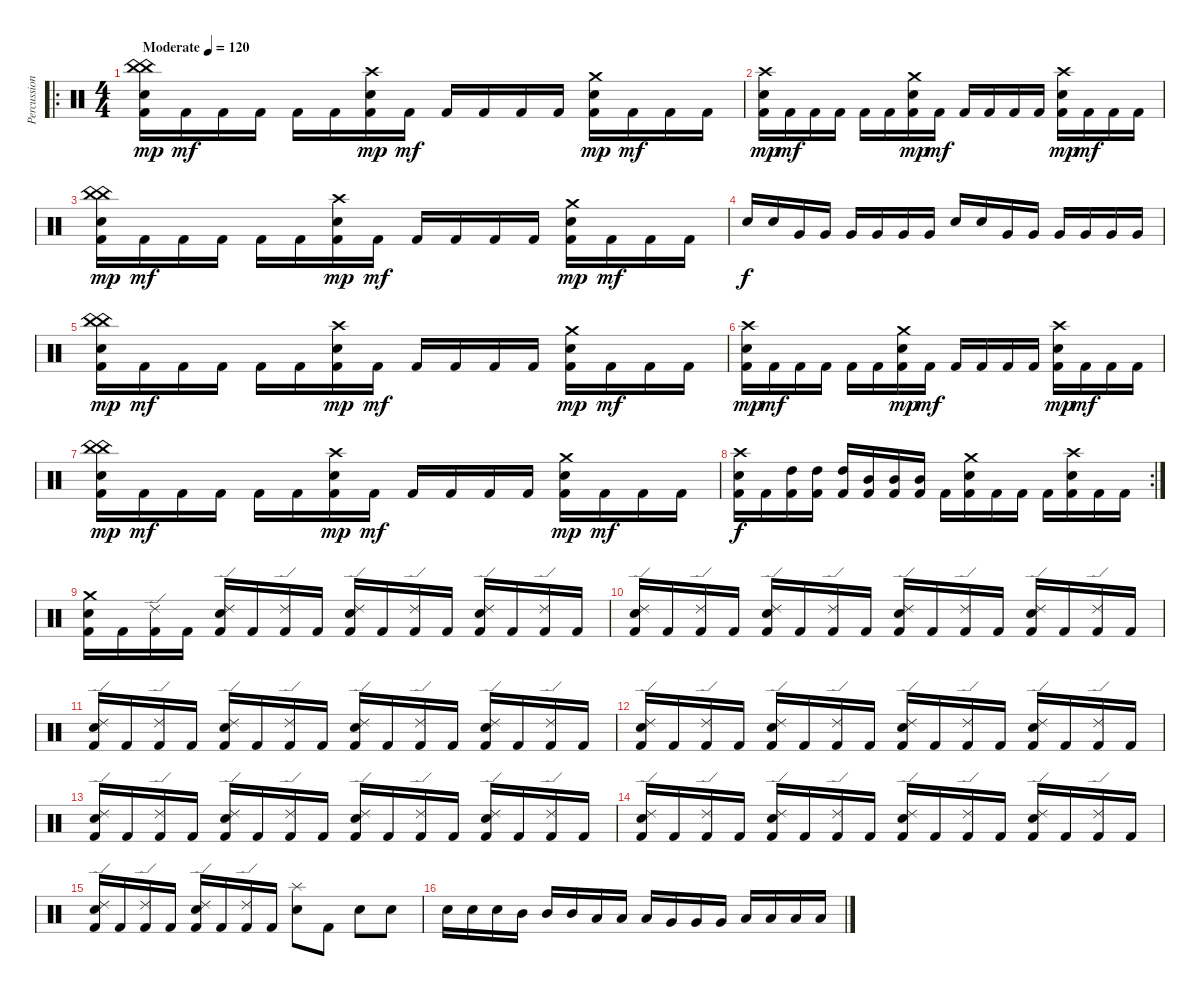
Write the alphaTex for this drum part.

\track ("Percussion" "Percussion") {instrument percussion}
\staff {score}
\articulation defaults
\ro
\ts (4 4)
\tempo (120 "Moderate")
\tempo 180
\tempo (120 "Moderate")
\clef neutral
\ks c
("China (hit)" "China (hit)" "Electric Snare (hit)" "Kick (hit) 2").16{dy mp} "Kick (hit) 2".16{dy mf} "Kick (hit) 2".16 "Kick (hit) 2".16 "Kick (hit) 2".16 "Kick (hit) 2".16 ("Crash high (hit)" "Electric Snare (hit)" "Kick (hit) 2").16{dy mp} "Kick (hit) 2".16{dy mf} "Kick (hit) 2".16 "Kick (hit) 2".16 "Kick (hit) 2".16 "Kick (hit) 2".16 ("Crash medium (hit)" "Electric Snare (hit)" "Kick (hit) 2").16{dy mp} "Kick (hit) 2".16{dy mf} "Kick (hit) 2".16 "Kick (hit) 2".16 |
("Crash high (hit)" "Electric Snare (hit)" "Kick (hit) 2").16{dy mp} "Kick (hit) 2".16{dy mf} "Kick (hit) 2".16 "Kick (hit) 2".16 "Kick (hit) 2".16 "Kick (hit) 2".16 ("Crash medium (hit)" "Electric Snare (hit)" "Kick (hit) 2").16{dy mp} "Kick (hit) 2".16{dy mf} "Kick (hit) 2".16 "Kick (hit) 2".16 "Kick (hit) 2".16 "Kick (hit) 2".16 ("Crash high (hit)" "Electric Snare (hit)" "Kick (hit) 2").16{dy mp} "Kick (hit) 2".16{dy mf} "Kick (hit) 2".16 "Kick (hit) 2".16 |
("China (hit)" "China (hit)" "Electric Snare (hit)" "Kick (hit) 2").16{dy mp} "Kick (hit) 2".16{dy mf} "Kick (hit) 2".16 "Kick (hit) 2".16 "Kick (hit) 2".16 "Kick (hit) 2".16 ("Crash high (hit)" "Electric Snare (hit)" "Kick (hit) 2").16{dy mp} "Kick (hit) 2".16{dy mf} "Kick (hit) 2".16 "Kick (hit) 2".16 "Kick (hit) 2".16 "Kick (hit) 2".16 ("Crash medium (hit)" "Electric Snare (hit)" "Kick (hit) 2").16{dy mp} "Kick (hit) 2".16{dy mf} "Kick (hit) 2".16 "Kick (hit) 2".16 |
"Electric Snare (hit)".16{dy f} "Electric Snare (hit)".16 "Very Low Tom (hit)".16 "Very Low Tom (hit)".16 "Very Low Tom (hit)".16 "Very Low Tom (hit)".16 "Very Low Tom (hit)".16 "Very Low Tom (hit)".16 "Electric Snare (hit)".16 "Electric Snare (hit)".16 "Very Low Tom (hit)".16 "Very Low Tom (hit)".16 "Very Low Tom (hit)".16 "Very Low Tom (hit)".16 "Very Low Tom (hit)".16 "Very Low Tom (hit)".16 |
("China (hit)" "China (hit)" "Electric Snare (hit)" "Kick (hit) 2").16{dy mp} "Kick (hit) 2".16{dy mf} "Kick (hit) 2".16 "Kick (hit) 2".16 "Kick (hit) 2".16 "Kick (hit) 2".16 ("Crash high (hit)" "Electric Snare (hit)" "Kick (hit) 2").16{dy mp} "Kick (hit) 2".16{dy mf} "Kick (hit) 2".16 "Kick (hit) 2".16 "Kick (hit) 2".16 "Kick (hit) 2".16 ("Crash medium (hit)" "Electric Snare (hit)" "Kick (hit) 2").16{dy mp} "Kick (hit) 2".16{dy mf} "Kick (hit) 2".16 "Kick (hit) 2".16 |
("Crash high (hit)" "Electric Snare (hit)" "Kick (hit) 2").16{dy mp} "Kick (hit) 2".16{dy mf} "Kick (hit) 2".16 "Kick (hit) 2".16 "Kick (hit) 2".16 "Kick (hit) 2".16 ("Crash medium (hit)" "Electric Snare (hit)" "Kick (hit) 2").16{dy mp} "Kick (hit) 2".16{dy mf} "Kick (hit) 2".16 "Kick (hit) 2".16 "Kick (hit) 2".16 "Kick (hit) 2".16 ("Crash high (hit)" "Electric Snare (hit)" "Kick (hit) 2").16{dy mp} "Kick (hit) 2".16{dy mf} "Kick (hit) 2".16 "Kick (hit) 2".16 |
("China (hit)" "China (hit)" "Electric Snare (hit)" "Kick (hit) 2").16{dy mp} "Kick (hit) 2".16{dy mf} "Kick (hit) 2".16 "Kick (hit) 2".16 "Kick (hit) 2".16 "Kick (hit) 2".16 ("Crash high (hit)" "Electric Snare (hit)" "Kick (hit) 2").16{dy mp} "Kick (hit) 2".16{dy mf} "Kick (hit) 2".16 "Kick (hit) 2".16 "Kick (hit) 2".16 "Kick (hit) 2".16 ("Crash medium (hit)" "Electric Snare (hit)" "Kick (hit) 2").16{dy mp} "Kick (hit) 2".16{dy mf} "Kick (hit) 2".16 "Kick (hit) 2".16 |
\rc 2
("Crash high (hit)" "Electric Snare (hit)" "Kick (hit) 2").16{dy f} "Kick (hit) 2".16 ("High Tom (hit)" "Kick (hit) 2").16 ("High Tom (hit)" "Kick (hit) 2").16 ("High Tom (hit)" "Kick (hit) 2").16 ("Mid Tom (hit)" "Kick (hit) 2").16 ("Mid Tom (hit)" "Kick (hit) 2").16 ("Mid Tom (hit)" "Kick (hit) 2").16 "Kick (hit) 2".16 ("Crash medium (hit)" "Electric Snare (hit)" "Kick (hit) 2").16 "Kick (hit) 2".16 "Kick (hit) 2".16 "Kick (hit) 2".16 ("Crash high (hit)" "Electric Snare (hit)" "Kick (hit) 2").16 "Kick (hit) 2".16 "Kick (hit) 2".16 |
("Crash medium (hit)" "Electric Snare (hit)" "Kick (hit) 2").16 "Kick (hit) 2".16 ("Ride (edge) 2" "Kick (hit) 2").16 "Kick (hit) 2".16 ("Ride (edge) 2" "Electric Snare (hit)" "Kick (hit) 2").16 "Kick (hit) 2".16 ("Ride (edge) 2" "Kick (hit) 2").16 "Kick (hit) 2".16 ("Ride (edge) 2" "Electric Snare (hit)" "Kick (hit) 2").16 "Kick (hit) 2".16 ("Ride (edge) 2" "Kick (hit) 2").16 "Kick (hit) 2".16 ("Ride (edge) 2" "Electric Snare (hit)" "Kick (hit) 2").16 "Kick (hit) 2".16 ("Ride (edge) 2" "Kick (hit) 2").16 "Kick (hit) 2".16 |
("Ride (edge) 2" "Electric Snare (hit)" "Kick (hit) 2").16 "Kick (hit) 2".16 ("Ride (edge) 2" "Kick (hit) 2").16 "Kick (hit) 2".16 ("Ride (edge) 2" "Electric Snare (hit)" "Kick (hit) 2").16 "Kick (hit) 2".16 ("Ride (edge) 2" "Kick (hit) 2").16 "Kick (hit) 2".16 ("Ride (edge) 2" "Electric Snare (hit)" "Kick (hit) 2").16 "Kick (hit) 2".16 ("Ride (edge) 2" "Kick (hit) 2").16 "Kick (hit) 2".16 ("Ride (edge) 2" "Electric Snare (hit)" "Kick (hit) 2").16 "Kick (hit) 2".16 ("Ride (edge) 2" "Kick (hit) 2").16 "Kick (hit) 2".16 |
("Ride (edge) 2" "Electric Snare (hit)" "Kick (hit) 2").16 "Kick (hit) 2".16 ("Ride (edge) 2" "Kick (hit) 2").16 "Kick (hit) 2".16 ("Ride (edge) 2" "Electric Snare (hit)" "Kick (hit) 2").16 "Kick (hit) 2".16 ("Ride (edge) 2" "Kick (hit) 2").16 "Kick (hit) 2".16 ("Ride (edge) 2" "Electric Snare (hit)" "Kick (hit) 2").16 "Kick (hit) 2".16 ("Ride (edge) 2" "Kick (hit) 2").16 "Kick (hit) 2".16 ("Ride (edge) 2" "Electric Snare (hit)" "Kick (hit) 2").16 "Kick (hit) 2".16 ("Ride (edge) 2" "Kick (hit) 2").16 "Kick (hit) 2".16 |
("Ride (edge) 2" "Electric Snare (hit)" "Kick (hit) 2").16 "Kick (hit) 2".16 ("Ride (edge) 2" "Kick (hit) 2").16 "Kick (hit) 2".16 ("Ride (edge) 2" "Electric Snare (hit)" "Kick (hit) 2").16 "Kick (hit) 2".16 ("Ride (edge) 2" "Kick (hit) 2").16 "Kick (hit) 2".16 ("Ride (edge) 2" "Electric Snare (hit)" "Kick (hit) 2").16 "Kick (hit) 2".16 ("Ride (edge) 2" "Kick (hit) 2").16 "Kick (hit) 2".16 ("Ride (edge) 2" "Electric Snare (hit)" "Kick (hit) 2").16 "Kick (hit) 2".16 ("Ride (edge) 2" "Kick (hit) 2").16 "Kick (hit) 2".16 |
("Ride (edge) 2" "Electric Snare (hit)" "Kick (hit) 2").16 "Kick (hit) 2".16 ("Ride (edge) 2" "Kick (hit) 2").16 "Kick (hit) 2".16 ("Ride (edge) 2" "Electric Snare (hit)" "Kick (hit) 2").16 "Kick (hit) 2".16 ("Ride (edge) 2" "Kick (hit) 2").16 "Kick (hit) 2".16 ("Ride (edge) 2" "Electric Snare (hit)" "Kick (hit) 2").16 "Kick (hit) 2".16 ("Ride (edge) 2" "Kick (hit) 2").16 "Kick (hit) 2".16 ("Ride (edge) 2" "Electric Snare (hit)" "Kick (hit) 2").16 "Kick (hit) 2".16 ("Ride (edge) 2" "Kick (hit) 2").16 "Kick (hit) 2".16 |
("Ride (edge) 2" "Electric Snare (hit)" "Kick (hit) 2").16 "Kick (hit) 2".16 ("Ride (edge) 2" "Kick (hit) 2").16 "Kick (hit) 2".16 ("Ride (edge) 2" "Electric Snare (hit)" "Kick (hit) 2").16 "Kick (hit) 2".16 ("Ride (edge) 2" "Kick (hit) 2").16 "Kick (hit) 2".16 ("Ride (edge) 2" "Electric Snare (hit)" "Kick (hit) 2").16 "Kick (hit) 2".16 ("Ride (edge) 2" "Kick (hit) 2").16 "Kick (hit) 2".16 ("Ride (edge) 2" "Electric Snare (hit)" "Kick (hit) 2").16 "Kick (hit) 2".16 ("Ride (edge) 2" "Kick (hit) 2").16 "Kick (hit) 2".16 |
("Ride (edge) 2" "Electric Snare (hit)" "Kick (hit) 2").16 "Kick (hit) 2".16 ("Ride (edge) 2" "Kick (hit) 2").16 "Kick (hit) 2".16 ("Ride (edge) 2" "Electric Snare (hit)" "Kick (hit) 2").16 "Kick (hit) 2".16 ("Ride (edge) 2" "Kick (hit) 2").16 "Kick (hit) 2".16 ("Splash (hit)" "Electric Snare (hit)").8 "Kick (hit) 2".8 "Electric Snare (hit)".8 "Electric Snare (hit)".8 |
"Electric Snare (hit)".16 "Electric Snare (hit)".16 "Electric Snare (hit)".16 "Mid Tom (hit)".16 "Mid Tom (hit)".16 "Mid Tom (hit)".16 "Low Tom (hit)".16 "Low Tom (hit)".16 "Low Tom (hit)".16 "Very Low Tom (hit)".16 "Very Low Tom (hit)".16 "Very Low Tom (hit)".16 "Low Floor Tom (hit)".16 "Low Floor Tom (hit)".16 "Low Floor Tom (hit)".16 "Low Floor Tom (hit)".16
